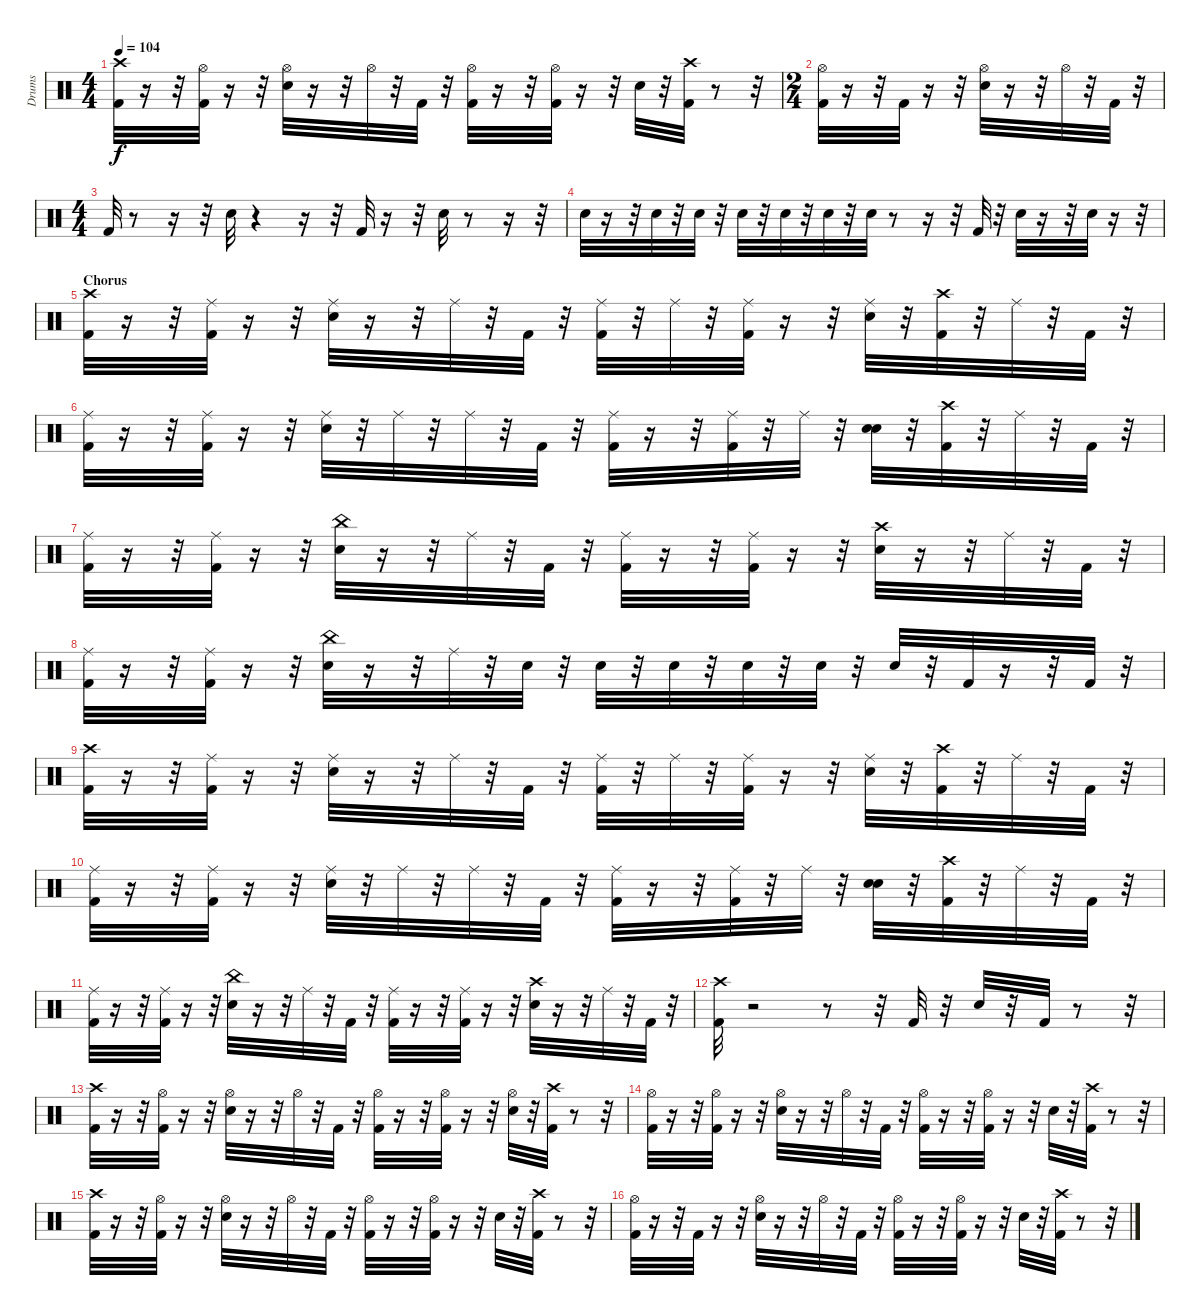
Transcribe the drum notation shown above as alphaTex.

\track ("Drums" "Drums") {instrument percussion}
\staff {score}
\articulation defaults
\ts (4 4)
\tempo 104
\clef neutral
\ks c
("Crash high (hit)" "Kick (hit) 2").32{dy f} r.16 r.32 ("Kick (hit) 2" "Hi-Hat (open)").32 r.16 r.32 ("Snare (hit) 2" "Hi-Hat (open)").32 r.16 r.32 "Hi-Hat (open)".32 r.32 "Kick (hit) 2".32 r.32 ("Kick (hit) 2" "Hi-Hat (open)").32 r.16 r.32 ("Hi-Hat (open)" "Kick (hit) 2").32 r.16 r.32 "Snare (hit) 2".32 r.32 ("Crash high (hit)" "Kick (hit) 2").32 r.8 r.32 |
\ts (2 4)
("Kick (hit) 2" "Hi-Hat (open)").32 r.16 r.32 "Kick (hit) 2".32 r.16 r.32 ("Snare (hit) 2" "Hi-Hat (open)").32 r.16 r.32 "Hi-Hat (open)".32 r.32 "Kick (hit) 2".32 r.32 |
\ts (4 4)
"Kick (hit) 2".32 r.8 r.16 r.32 "Snare (hit) 2".32 r.4 r.16 r.32 "Kick (hit) 2".32 r.16 r.32 "Snare (hit) 2".32 r.8 r.16 r.32 |
"Snare (hit) 2".32 r.16 r.32 "Snare (hit) 2".32 r.32 "Snare (hit) 2".32 r.32 "Snare (hit) 2".32 r.32 "Snare (hit) 2".32 r.32 "Snare (hit) 2".32 r.32 "Snare (hit) 2".32 r.8 r.16 r.32 "Kick (hit) 2".32 r.32 "Snare (hit) 2".32 r.16 r.32 "Snare (hit) 2".32 r.16 r.32 |
\section ("" "Chorus")
("Crash high (hit)" "Kick (hit) 2").32 r.16 r.32 ("Kick (hit) 2" "Ride (middle)").32 r.16 r.32 ("Ride (middle)" "Snare (hit) 2").32 r.16 r.32 "Ride (middle)".32 r.32 "Kick (hit) 2".32 r.32 ("Kick (hit) 2" "Ride (middle)").32 r.32 "Ride (middle)".32 r.32 ("Ride (middle)" "Kick (hit) 2").32 r.16 r.32 ("Snare (hit) 2" "Ride (middle)").32 r.32 ("Crash high (hit)" "Kick (hit) 2").32 r.32 "Ride (middle)".32 r.32 "Kick (hit) 2".32 r.32 |
("Kick (hit) 2" "Ride (middle)").32 r.16 r.32 ("Kick (hit) 2" "Ride (middle)").32 r.16 r.32 ("Snare (hit) 2" "Ride (middle)").32 r.32 "Ride (middle)".32 r.32 "Ride (middle)".32 r.32 "Kick (hit) 2".32 r.32 ("Ride (middle)" "Kick (hit) 2").32 r.16 r.32 ("Kick (hit) 2" "Ride (middle)").32 r.32 "Ride (middle)".32 r.32 ("Electric Snare (hit)" "Snare (hit) 2").32 r.32 ("Kick (hit) 2" "Crash high (hit)").32 r.32 "Ride (middle)".32 r.32 "Kick (hit) 2".32 r.32 |
("Kick (hit) 2" "Ride (middle)").32 r.16 r.32 ("Kick (hit) 2" "Ride (middle)").32 r.16 r.32 ("China (hit)" "Snare (hit) 2").32 r.16 r.32 "Ride (middle)".32 r.32 "Kick (hit) 2".32 r.32 ("Kick (hit) 2" "Ride (middle)").32 r.16 r.32 ("Ride (middle)" "Kick (hit) 2").32 r.16 r.32 ("Snare (hit) 2" "Crash high (hit)").32 r.16 r.32 "Ride (middle)".32 r.32 "Kick (hit) 2".32 r.32 |
("Ride (middle)" "Kick (hit) 2").32 r.16 r.32 ("Kick (hit) 2" "Ride (middle)").32 r.16 r.32 ("Snare (hit) 2" "China (hit)").32 r.16 r.32 "Ride (middle)".32 r.32 "Snare (hit) 2".32 r.32 "Snare (hit) 2".32 r.32 "Snare (hit) 2".32 r.32 "Snare (hit) 2".32 r.32 "Snare (hit) 2".32 r.32 "Snare (hit) 2".32 r.32 "Kick (hit) 2".32 r.16 r.32 "Kick (hit) 2".32 r.32 |
("Crash high (hit)" "Kick (hit) 2").32 r.16 r.32 ("Kick (hit) 2" "Ride (middle)").32 r.16 r.32 ("Ride (middle)" "Snare (hit) 2").32 r.16 r.32 "Ride (middle)".32 r.32 "Kick (hit) 2".32 r.32 ("Kick (hit) 2" "Ride (middle)").32 r.32 "Ride (middle)".32 r.32 ("Ride (middle)" "Kick (hit) 2").32 r.16 r.32 ("Snare (hit) 2" "Ride (middle)").32 r.32 ("Crash high (hit)" "Kick (hit) 2").32 r.32 "Ride (middle)".32 r.32 "Kick (hit) 2".32 r.32 |
("Kick (hit) 2" "Ride (middle)").32 r.16 r.32 ("Kick (hit) 2" "Ride (middle)").32 r.16 r.32 ("Snare (hit) 2" "Ride (middle)").32 r.32 "Ride (middle)".32 r.32 "Ride (middle)".32 r.32 "Kick (hit) 2".32 r.32 ("Ride (middle)" "Kick (hit) 2").32 r.16 r.32 ("Kick (hit) 2" "Ride (middle)").32 r.32 "Ride (middle)".32 r.32 ("Electric Snare (hit)" "Snare (hit) 2").32 r.32 ("Kick (hit) 2" "Crash high (hit)").32 r.32 "Ride (middle)".32 r.32 "Kick (hit) 2".32 r.32 |
("Kick (hit) 2" "Ride (middle)").32 r.16 r.32 ("Kick (hit) 2" "Ride (middle)").32 r.16 r.32 ("China (hit)" "Snare (hit) 2").32 r.16 r.32 "Ride (middle)".32 r.32 "Kick (hit) 2".32 r.32 ("Kick (hit) 2" "Ride (middle)").32 r.16 r.32 ("Ride (middle)" "Kick (hit) 2").32 r.16 r.32 ("Snare (hit) 2" "Crash high (hit)").32 r.16 r.32 "Ride (middle)".32 r.32 "Kick (hit) 2".32 r.32 |
("Crash high (hit)" "Kick (hit) 2").32 r.2 r.8 r.32 "Kick (hit) 2".32 r.32 "Snare (hit) 2".32 r.32 "Kick (hit) 2".32 r.8 r.32 |
("Crash high (hit)" "Kick (hit) 2").32 r.16 r.32 ("Hi-Hat (open)" "Kick (hit) 2").32 r.16 r.32 ("Hi-Hat (open)" "Snare (hit) 2").32 r.16 r.32 "Hi-Hat (open)".32 r.32 "Kick (hit) 2".32 r.32 ("Kick (hit) 2" "Hi-Hat (open)").32 r.16 r.32 ("Kick (hit) 2" "Hi-Hat (open)").32 r.16 r.32 ("Hi-Hat (open)" "Snare (hit) 2").32 r.32 ("Kick (hit) 2" "Crash high (hit)").32 r.8 r.32 |
("Hi-Hat (open)" "Kick (hit) 2").32 r.16 r.32 ("Kick (hit) 2" "Hi-Hat (open)").32 r.16 r.32 ("Hi-Hat (open)" "Snare (hit) 2").32 r.16 r.32 "Hi-Hat (open)".32 r.32 "Kick (hit) 2".32 r.32 ("Kick (hit) 2" "Hi-Hat (open)").32 r.16 r.32 ("Kick (hit) 2" "Hi-Hat (open)").32 r.16 r.32 "Snare (hit) 2".32 r.32 ("Kick (hit) 2" "Crash high (hit)").32 r.8 r.32 |
("Crash high (hit)" "Kick (hit) 2").32 r.16 r.32 ("Kick (hit) 2" "Hi-Hat (open)").32 r.16 r.32 ("Snare (hit) 2" "Hi-Hat (open)").32 r.16 r.32 "Hi-Hat (open)".32 r.32 "Kick (hit) 2".32 r.32 ("Kick (hit) 2" "Hi-Hat (open)").32 r.16 r.32 ("Hi-Hat (open)" "Kick (hit) 2").32 r.16 r.32 "Snare (hit) 2".32 r.32 ("Crash high (hit)" "Kick (hit) 2").32 r.8 r.32 |
("Kick (hit) 2" "Hi-Hat (open)").32 r.16 r.32 "Kick (hit) 2".32 r.16 r.32 ("Snare (hit) 2" "Hi-Hat (open)").32 r.16 r.32 "Hi-Hat (open)".32 r.32 "Kick (hit) 2".32 r.32 ("Hi-Hat (open)" "Kick (hit) 2").32 r.16 r.32 ("Kick (hit) 2" "Hi-Hat (open)").32 r.16 r.32 "Snare (hit) 2".32 r.32 ("Kick (hit) 2" "Crash high (hit)").32 r.8 r.32
